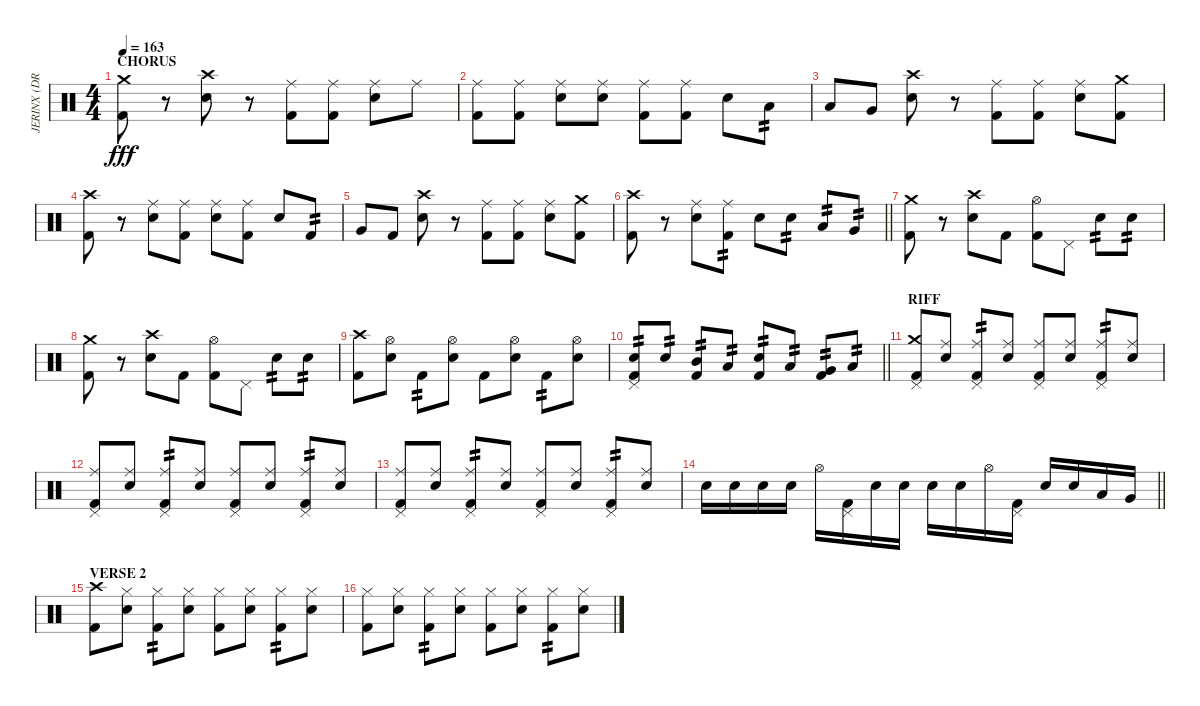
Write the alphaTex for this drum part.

\track ("JERINX (DRUM)" "JERINX (DR") {instrument percussion}
\staff {score}
\articulation defaults
\ts (4 4)
\section ("" "CHORUS")
\tempo 163
\clef neutral
\ks c
("Kick (hit) 2" "Crash medium (hit)").8{dy fff} r.8 ("Snare (hit) 2" "Crash high (hit)").8 r.8 ("Kick (hit) 2" "Ride (middle)").8 ("Kick (hit) 2" "Ride (middle)").8 ("Snare (hit) 2" "Ride (middle)").8 "Ride (middle)".8 |
("Kick (hit) 2" "Ride (middle)").8 ("Kick (hit) 2" "Ride (middle)").8 ("Snare (hit) 2" "Ride (middle)").8 ("Snare (hit) 2" "Ride (middle)").8 ("Kick (hit) 2" "Ride (middle)").8 ("Kick (hit) 2" "Ride (middle)").8 "Snare (hit) 2".8 "Low Tom (hit)".8{tp 2} |
"Low Tom (hit)".8 "Very Low Tom (hit)".8 ("Snare (hit) 2" "Crash high (hit)").8 r.8 ("Kick (hit) 2" "Ride (middle)").8 ("Kick (hit) 2" "Ride (middle)").8 ("Snare (hit) 2" "Ride (middle)").8 ("Kick (hit) 2" "Crash medium (hit)").8 |
("Kick (hit) 2" "Crash high (hit)").8 r.8 ("Snare (hit) 2" "Ride (middle)").8 ("Kick (hit) 2" "Ride (middle)").8 ("Snare (hit) 2" "Ride (middle)").8 ("Kick (hit) 2" "Ride (middle)").8 "Snare (hit) 2".8 "Kick (hit) 2".8{tp 2} |
"Very Low Tom (hit)".8 "Kick (hit) 2".8 ("Snare (hit) 2" "Crash high (hit)").8 r.8 ("Kick (hit) 2" "Ride (middle)").8 ("Kick (hit) 2" "Ride (middle)").8 ("Snare (hit) 2" "Ride (middle)").8 ("Kick (hit) 2" "Crash medium (hit)").8 |
\barLineRight lightlight
("Kick (hit) 2" "Crash high (hit)").8 r.8 ("Snare (hit) 2" "Ride (middle)").8 ("Kick (hit) 2" "Ride (middle)").8{tp 2} "Snare (hit) 2".8 "Snare (hit) 2".8{tp 2} "Low Tom (hit)".8{tp 2} "Very Low Tom (hit)".8{tp 2} |
("Kick (hit) 2" "Crash medium (hit)").8 r.8 ("Snare (hit) 2" "Crash high (hit)").8 "Kick (hit) 2".8 ("Hi-Hat (open)" "Kick (hit) 2").8 "Pedal Hi-Hat (hit)".8 "Snare (hit) 2".8{tp 2} "Snare (hit) 2".8{tp 2} |
("Kick (hit) 2" "Crash medium (hit)").8 r.8 ("Snare (hit) 2" "Crash high (hit)").8 "Kick (hit) 2".8 ("Hi-Hat (open)" "Kick (hit) 2").8 "Pedal Hi-Hat (hit)".8 "Snare (hit) 2".8{tp 2} "Snare (hit) 2".8{tp 2} |
("Kick (hit) 2" "Crash high (hit)").8 ("Hi-Hat (open)" "Snare (hit) 2").8 "Kick (hit) 2".8{tp 2} ("Hi-Hat (open)" "Snare (hit) 2").8 "Kick (hit) 2".8 ("Hi-Hat (open)" "Snare (hit) 2").8 "Kick (hit) 2".8{tp 2} ("Hi-Hat (open)" "Snare (hit) 2").8 |
\barLineRight lightlight
("Pedal Hi-Hat (hit)" "Snare (hit) 2" "Kick (hit) 2").8{tp 2} "Snare (hit) 2".8{tp 2} ("Kick (hit) 2" "Mid Tom (hit)").8{tp 2} "Low Tom (hit)".8{tp 2} ("Snare (hit) 2" "Kick (hit) 2").8{tp 2} "Low Tom (hit)".8{tp 2} ("Kick (hit) 2" "Very Low Tom (hit)").8{tp 2} "Low Floor Tom (hit)".8{tp 2} |
\section ("" "RIFF")
("Pedal Hi-Hat (hit)" "Kick (hit) 2" "Crash medium (hit)").8 ("Snare (hit) 2" "Ride (middle)").8 ("Pedal Hi-Hat (hit)" "Kick (hit) 2" "Ride (middle)").8{tp 2} ("Snare (hit) 2" "Ride (middle)").8 ("Pedal Hi-Hat (hit)" "Kick (hit) 2" "Ride (middle)").8 ("Snare (hit) 2" "Ride (middle)").8 ("Pedal Hi-Hat (hit)" "Kick (hit) 2" "Ride (middle)").8{tp 2} ("Snare (hit) 2" "Ride (middle)").8 |
("Pedal Hi-Hat (hit)" "Kick (hit) 2" "Ride (middle)").8 ("Snare (hit) 2" "Ride (middle)").8 ("Pedal Hi-Hat (hit)" "Kick (hit) 2" "Ride (middle)").8{tp 2} ("Snare (hit) 2" "Ride (middle)").8 ("Pedal Hi-Hat (hit)" "Kick (hit) 2" "Ride (middle)").8 ("Snare (hit) 2" "Ride (middle)").8 ("Pedal Hi-Hat (hit)" "Kick (hit) 2" "Ride (middle)").8{tp 2} ("Snare (hit) 2" "Ride (middle)").8 |
("Pedal Hi-Hat (hit)" "Kick (hit) 2" "Ride (middle)").8 ("Snare (hit) 2" "Ride (middle)").8 ("Pedal Hi-Hat (hit)" "Kick (hit) 2" "Ride (middle)").8{tp 2} ("Snare (hit) 2" "Ride (middle)").8 ("Pedal Hi-Hat (hit)" "Kick (hit) 2" "Ride (middle)").8 ("Snare (hit) 2" "Ride (middle)").8 ("Pedal Hi-Hat (hit)" "Kick (hit) 2" "Ride (middle)").8{tp 2} ("Snare (hit) 2" "Ride (middle)").8 |
\barLineRight lightlight "Snare (hit) 2".16 "Snare (hit) 2".16 "Snare (hit) 2".16 "Snare (hit) 2".16 "Hi-Hat (open)".16
("Pedal Hi-Hat (hit)" "Kick (hit) 2").16 "Snare (hit) 2".16 "Snare (hit) 2".16 "Snare (hit) 2".16 "Snare (hit) 2".16 "Hi-Hat (open)".16 ("Pedal Hi-Hat (hit)" "Kick (hit) 2").16 "Snare (hit) 2".16 "Snare (hit) 2".16 "Low Tom (hit)".16 "Very Low Tom (hit)".16 |
\section ("" "VERSE 2")
("Kick (hit) 2" "Crash high (hit)").8 ("Hi-Hat (closed)" "Snare (hit) 2").8 ("Hi-Hat (closed)" "Kick (hit) 2").8{tp 2} ("Hi-Hat (closed)" "Snare (hit) 2").8 ("Hi-Hat (closed)" "Kick (hit) 2").8 ("Hi-Hat (closed)" "Snare (hit) 2").8 ("Hi-Hat (closed)" "Kick (hit) 2").8{tp 2} ("Hi-Hat (closed)" "Snare (hit) 2").8 |
("Hi-Hat (closed)" "Kick (hit) 2").8 ("Hi-Hat (closed)" "Snare (hit) 2").8 ("Hi-Hat (closed)" "Kick (hit) 2").8{tp 2} ("Hi-Hat (closed)" "Snare (hit) 2").8 ("Hi-Hat (closed)" "Kick (hit) 2").8 ("Hi-Hat (closed)" "Snare (hit) 2").8 ("Hi-Hat (closed)" "Kick (hit) 2").8{tp 2} ("Hi-Hat (closed)" "Snare (hit) 2").8
